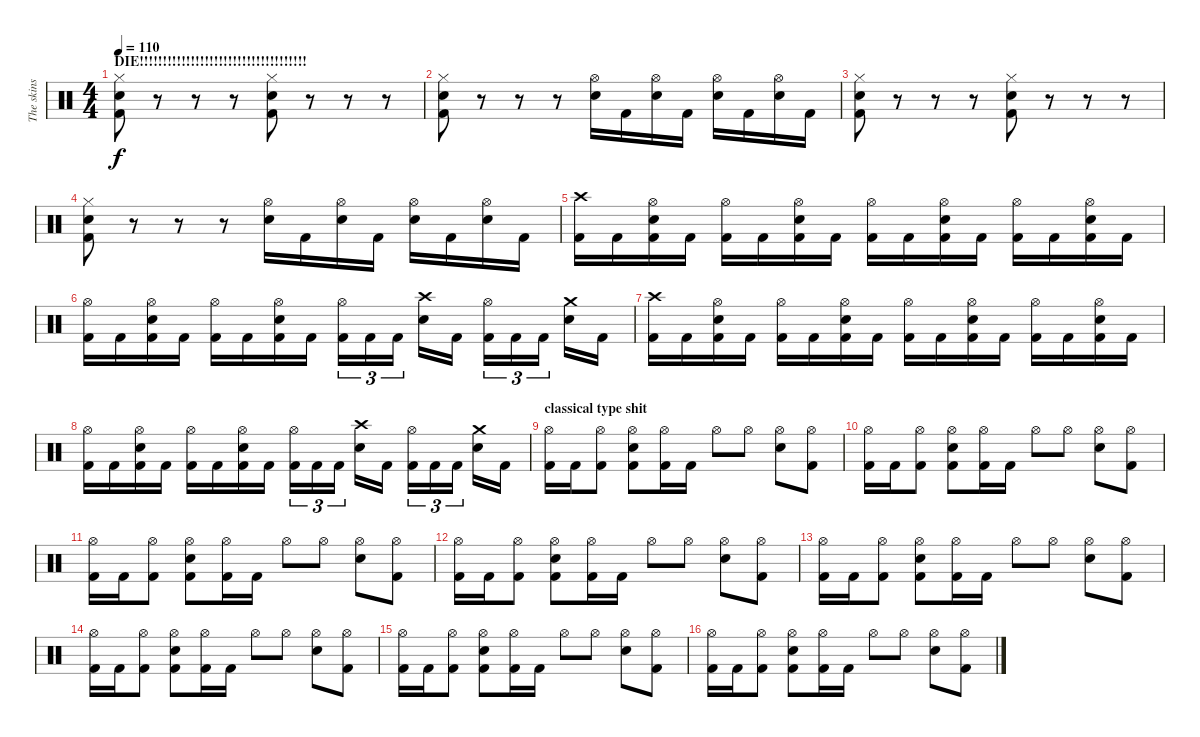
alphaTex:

\track ("The skins" "The skins") {instrument percussion}
\staff {score}
\articulation defaults
\ts (4 4)
\section ("" "DIE!!!!!!!!!!!!!!!!!!!!!!!!!!!!!!!!!!!!")
\tempo 110
\clef neutral
\ks c
("Hi-Hat (closed)" "Electric Snare (hit)" "Kick (hit) 2").8{dy f} r.8 r.8 r.8 ("Hi-Hat (closed)" "Electric Snare (hit)" "Kick (hit) 2").8 r.8 r.8 r.8 |
("Hi-Hat (closed)" "Electric Snare (hit)" "Kick (hit) 2").8 r.8 r.8 r.8 ("Hi-Hat (open)" "Electric Snare (hit)").16 "Kick (hit) 2".16 ("Hi-Hat (open)" "Electric Snare (hit)").16 "Kick (hit) 2".16 ("Hi-Hat (open)" "Electric Snare (hit)").16 "Kick (hit) 2".16 ("Hi-Hat (open)" "Electric Snare (hit)").16 "Kick (hit) 2".16 |
("Hi-Hat (closed)" "Electric Snare (hit)" "Kick (hit) 2").8 r.8 r.8 r.8 ("Hi-Hat (closed)" "Electric Snare (hit)" "Kick (hit) 2").8 r.8 r.8 r.8 |
("Hi-Hat (closed)" "Electric Snare (hit)" "Kick (hit) 2").8 r.8 r.8 r.8 ("Hi-Hat (open)" "Electric Snare (hit)").16 "Kick (hit) 2".16 ("Hi-Hat (open)" "Electric Snare (hit)").16 "Kick (hit) 2".16 ("Hi-Hat (open)" "Electric Snare (hit)").16 "Kick (hit) 2".16 ("Hi-Hat (open)" "Electric Snare (hit)").16 "Kick (hit) 2".16 |
("Crash high (hit)" "Kick (hit) 2").16 "Kick (hit) 2".16 ("Hi-Hat (open)" "Electric Snare (hit)" "Kick (hit) 2").16 "Kick (hit) 2".16 ("Hi-Hat (open)" "Kick (hit) 2").16 "Kick (hit) 2".16 ("Hi-Hat (open)" "Electric Snare (hit)" "Kick (hit) 2").16 "Kick (hit) 2".16 ("Hi-Hat (open)" "Kick (hit) 2").16 "Kick (hit) 2".16 ("Hi-Hat (open)" "Electric Snare (hit)" "Kick (hit) 2").16 "Kick (hit) 2".16 ("Hi-Hat (open)" "Kick (hit) 2").16 "Kick (hit) 2".16 ("Hi-Hat (open)" "Electric Snare (hit)" "Kick (hit) 2").16 "Kick (hit) 2".16 |
("Hi-Hat (open)" "Kick (hit) 2").16 "Kick (hit) 2".16 ("Hi-Hat (open)" "Electric Snare (hit)" "Kick (hit) 2").16 "Kick (hit) 2".16 ("Hi-Hat (open)" "Kick (hit) 2").16 "Kick (hit) 2".16 ("Hi-Hat (open)" "Electric Snare (hit)" "Kick (hit) 2").16 "Kick (hit) 2".16 ("Hi-Hat (open)" "Kick (hit) 2").16{tu (3 2)} "Kick (hit) 2".16{tu (3 2)} "Kick (hit) 2".16{tu (3 2)} ("Crash high (hit)" "Electric Snare (hit)").16 "Kick (hit) 2".16 ("Hi-Hat (open)" "Kick (hit) 2").16{tu (3 2)} "Kick (hit) 2".16{tu (3 2)} "Kick (hit) 2".16{tu (3 2)} ("Crash medium (hit)" "Electric Snare (hit)").16 "Kick (hit) 2".16 |
("Crash high (hit)" "Kick (hit) 2").16 "Kick (hit) 2".16 ("Hi-Hat (open)" "Electric Snare (hit)" "Kick (hit) 2").16 "Kick (hit) 2".16 ("Hi-Hat (open)" "Kick (hit) 2").16 "Kick (hit) 2".16 ("Hi-Hat (open)" "Electric Snare (hit)" "Kick (hit) 2").16 "Kick (hit) 2".16 ("Hi-Hat (open)" "Kick (hit) 2").16 "Kick (hit) 2".16 ("Hi-Hat (open)" "Electric Snare (hit)" "Kick (hit) 2").16 "Kick (hit) 2".16 ("Hi-Hat (open)" "Kick (hit) 2").16 "Kick (hit) 2".16 ("Hi-Hat (open)" "Electric Snare (hit)" "Kick (hit) 2").16 "Kick (hit) 2".16 |
("Hi-Hat (open)" "Kick (hit) 2").16 "Kick (hit) 2".16 ("Hi-Hat (open)" "Electric Snare (hit)" "Kick (hit) 2").16 "Kick (hit) 2".16 ("Hi-Hat (open)" "Kick (hit) 2").16 "Kick (hit) 2".16 ("Hi-Hat (open)" "Electric Snare (hit)" "Kick (hit) 2").16 "Kick (hit) 2".16 ("Hi-Hat (open)" "Kick (hit) 2").16{tu (3 2)} "Kick (hit) 2".16{tu (3 2)} "Kick (hit) 2".16{tu (3 2)} ("Crash high (hit)" "Electric Snare (hit)").16 "Kick (hit) 2".16 ("Hi-Hat (open)" "Kick (hit) 2").16{tu (3 2)} "Kick (hit) 2".16{tu (3 2)} "Kick (hit) 2".16{tu (3 2)} ("Crash medium (hit)" "Electric Snare (hit)").16 "Kick (hit) 2".16 |
\section ("" "classical type shit")
("Hi-Hat (open)" "Kick (hit) 2").16 "Kick (hit) 2".16 ("Hi-Hat (open)" "Kick (hit) 2").8 ("Hi-Hat (open)" "Electric Snare (hit)" "Kick (hit) 2").8 ("Hi-Hat (open)" "Kick (hit) 2").16 "Kick (hit) 2".16 "Hi-Hat (open)".8 "Hi-Hat (open)".8 ("Hi-Hat (open)" "Electric Snare (hit)").8 ("Hi-Hat (open)" "Kick (hit) 2").8 |
("Hi-Hat (open)" "Kick (hit) 2").16 "Kick (hit) 2".16 ("Hi-Hat (open)" "Kick (hit) 2").8 ("Hi-Hat (open)" "Electric Snare (hit)" "Kick (hit) 2").8 ("Hi-Hat (open)" "Kick (hit) 2").16 "Kick (hit) 2".16 "Hi-Hat (open)".8 "Hi-Hat (open)".8 ("Hi-Hat (open)" "Electric Snare (hit)").8 ("Hi-Hat (open)" "Kick (hit) 2").8 |
("Hi-Hat (open)" "Kick (hit) 2").16 "Kick (hit) 2".16 ("Hi-Hat (open)" "Kick (hit) 2").8 ("Hi-Hat (open)" "Electric Snare (hit)" "Kick (hit) 2").8 ("Hi-Hat (open)" "Kick (hit) 2").16 "Kick (hit) 2".16 "Hi-Hat (open)".8 "Hi-Hat (open)".8 ("Hi-Hat (open)" "Electric Snare (hit)").8 ("Hi-Hat (open)" "Kick (hit) 2").8 |
("Hi-Hat (open)" "Kick (hit) 2").16 "Kick (hit) 2".16 ("Hi-Hat (open)" "Kick (hit) 2").8 ("Hi-Hat (open)" "Electric Snare (hit)" "Kick (hit) 2").8 ("Hi-Hat (open)" "Kick (hit) 2").16 "Kick (hit) 2".16 "Hi-Hat (open)".8 "Hi-Hat (open)".8 ("Hi-Hat (open)" "Electric Snare (hit)").8 ("Hi-Hat (open)" "Kick (hit) 2").8 |
("Hi-Hat (open)" "Kick (hit) 2").16 "Kick (hit) 2".16 ("Hi-Hat (open)" "Kick (hit) 2").8 ("Hi-Hat (open)" "Electric Snare (hit)" "Kick (hit) 2").8 ("Hi-Hat (open)" "Kick (hit) 2").16 "Kick (hit) 2".16 "Hi-Hat (open)".8 "Hi-Hat (open)".8 ("Hi-Hat (open)" "Electric Snare (hit)").8 ("Hi-Hat (open)" "Kick (hit) 2").8 |
("Hi-Hat (open)" "Kick (hit) 2").16 "Kick (hit) 2".16 ("Hi-Hat (open)" "Kick (hit) 2").8 ("Hi-Hat (open)" "Electric Snare (hit)" "Kick (hit) 2").8 ("Hi-Hat (open)" "Kick (hit) 2").16 "Kick (hit) 2".16 "Hi-Hat (open)".8 "Hi-Hat (open)".8 ("Hi-Hat (open)" "Electric Snare (hit)").8 ("Hi-Hat (open)" "Kick (hit) 2").8 |
("Hi-Hat (open)" "Kick (hit) 2").16 "Kick (hit) 2".16 ("Hi-Hat (open)" "Kick (hit) 2").8 ("Hi-Hat (open)" "Electric Snare (hit)" "Kick (hit) 2").8 ("Hi-Hat (open)" "Kick (hit) 2").16 "Kick (hit) 2".16 "Hi-Hat (open)".8 "Hi-Hat (open)".8 ("Hi-Hat (open)" "Electric Snare (hit)").8 ("Hi-Hat (open)" "Kick (hit) 2").8 |
("Hi-Hat (open)" "Kick (hit) 2").16 "Kick (hit) 2".16 ("Hi-Hat (open)" "Kick (hit) 2").8 ("Hi-Hat (open)" "Electric Snare (hit)" "Kick (hit) 2").8 ("Hi-Hat (open)" "Kick (hit) 2").16 "Kick (hit) 2".16 "Hi-Hat (open)".8 "Hi-Hat (open)".8 ("Hi-Hat (open)" "Electric Snare (hit)").8 ("Hi-Hat (open)" "Kick (hit) 2").8
